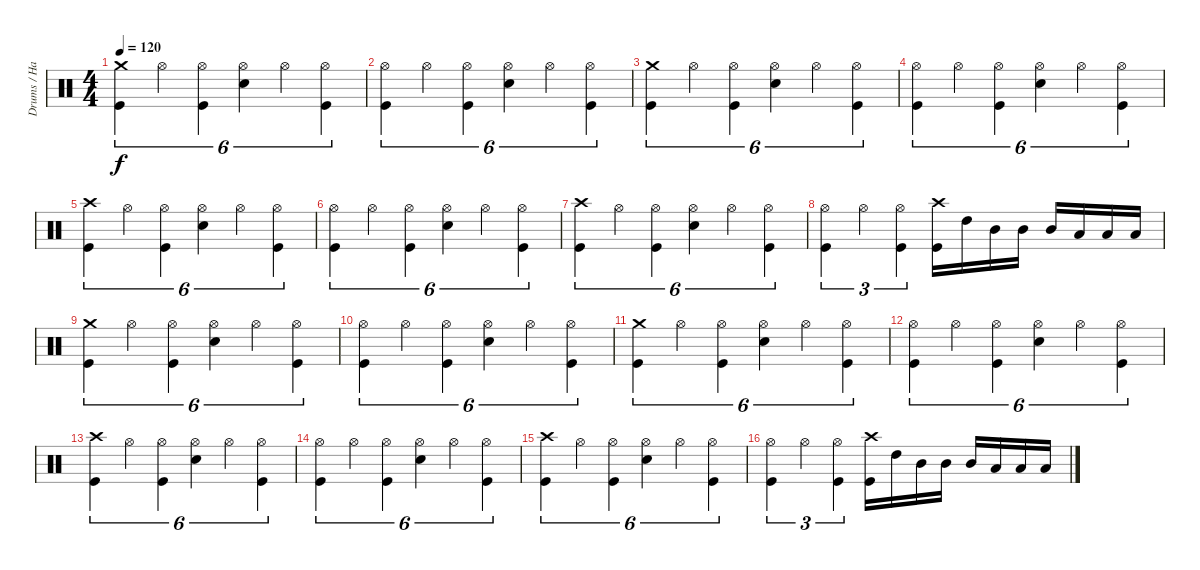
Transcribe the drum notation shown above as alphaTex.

\track ("Drums / Hammer of God" "Drums / Ha") {instrument percussion}
\staff {score}
\articulation defaults
\ts (4 4)
\tempo 120
\clef neutral
\ks c
("Kick (hit)" "Crash medium (hit)").4{tu (6 4) dy f} "Hi-Hat (open)".4{tu (6 4)} ("Kick (hit)" "Hi-Hat (open)").4{tu (6 4)} ("Snare (hit) 2" "Hi-Hat (open)").4{tu (6 4)} "Hi-Hat (open)".4{tu (6 4)} ("Kick (hit)" "Hi-Hat (open)").4{tu (6 4)} |
("Kick (hit)" "Hi-Hat (open)").4{tu (6 4)} "Hi-Hat (open)".4{tu (6 4)} ("Kick (hit)" "Hi-Hat (open)").4{tu (6 4)} ("Snare (hit) 2" "Hi-Hat (open)").4{tu (6 4)} "Hi-Hat (open)".4{tu (6 4)} ("Kick (hit)" "Hi-Hat (open)").4{tu (6 4)} |
("Kick (hit)" "Crash medium (hit)").4{tu (6 4)} "Hi-Hat (open)".4{tu (6 4)} ("Kick (hit)" "Hi-Hat (open)").4{tu (6 4)} ("Snare (hit) 2" "Hi-Hat (open)").4{tu (6 4)} "Hi-Hat (open)".4{tu (6 4)} ("Kick (hit)" "Hi-Hat (open)").4{tu (6 4)} |
("Kick (hit)" "Hi-Hat (open)").4{tu (6 4)} "Hi-Hat (open)".4{tu (6 4)} ("Kick (hit)" "Hi-Hat (open)").4{tu (6 4)} ("Snare (hit) 2" "Hi-Hat (open)").4{tu (6 4)} "Hi-Hat (open)".4{tu (6 4)} ("Kick (hit)" "Hi-Hat (open)").4{tu (6 4)} |
("Kick (hit)" "Crash high (hit)").4{tu (6 4)} "Hi-Hat (open)".4{tu (6 4)} ("Kick (hit)" "Hi-Hat (open)").4{tu (6 4)} ("Snare (hit) 2" "Hi-Hat (open)").4{tu (6 4)} "Hi-Hat (open)".4{tu (6 4)} ("Kick (hit)" "Hi-Hat (open)").4{tu (6 4)} |
("Kick (hit)" "Hi-Hat (open)").4{tu (6 4)} "Hi-Hat (open)".4{tu (6 4)} ("Kick (hit)" "Hi-Hat (open)").4{tu (6 4)} ("Snare (hit) 2" "Hi-Hat (open)").4{tu (6 4)} "Hi-Hat (open)".4{tu (6 4)} ("Kick (hit)" "Hi-Hat (open)").4{tu (6 4)} |
("Kick (hit)" "Crash high (hit)").4{tu (6 4)} "Hi-Hat (open)".4{tu (6 4)} ("Kick (hit)" "Hi-Hat (open)").4{tu (6 4)} ("Snare (hit) 2" "Hi-Hat (open)").4{tu (6 4)} "Hi-Hat (open)".4{tu (6 4)} ("Kick (hit)" "Hi-Hat (open)").4{tu (6 4)} |
("Kick (hit)" "Hi-Hat (open)").4{tu (3 2)} "Hi-Hat (open)".4{tu (3 2)} ("Kick (hit)" "Hi-Hat (open)").4{tu (3 2)} ("Kick (hit)" "Crash high (hit)").16 "High Tom (hit)".16 "Mid Tom (hit)".16 "Mid Tom (hit)".16 "Mid Tom (hit)".16 "Low Tom (hit)".16 "Low Tom (hit)".16 "Low Tom (hit)".16 |
("Kick (hit)" "Crash medium (hit)").4{tu (6 4)} "Hi-Hat (open)".4{tu (6 4)} ("Kick (hit)" "Hi-Hat (open)").4{tu (6 4)} ("Snare (hit) 2" "Hi-Hat (open)").4{tu (6 4)} "Hi-Hat (open)".4{tu (6 4)} ("Kick (hit)" "Hi-Hat (open)").4{tu (6 4)} |
("Kick (hit)" "Hi-Hat (open)").4{tu (6 4)} "Hi-Hat (open)".4{tu (6 4)} ("Kick (hit)" "Hi-Hat (open)").4{tu (6 4)} ("Snare (hit) 2" "Hi-Hat (open)").4{tu (6 4)} "Hi-Hat (open)".4{tu (6 4)} ("Kick (hit)" "Hi-Hat (open)").4{tu (6 4)} |
("Kick (hit)" "Crash medium (hit)").4{tu (6 4)} "Hi-Hat (open)".4{tu (6 4)} ("Kick (hit)" "Hi-Hat (open)").4{tu (6 4)} ("Snare (hit) 2" "Hi-Hat (open)").4{tu (6 4)} "Hi-Hat (open)".4{tu (6 4)} ("Kick (hit)" "Hi-Hat (open)").4{tu (6 4)} |
("Kick (hit)" "Hi-Hat (open)").4{tu (6 4)} "Hi-Hat (open)".4{tu (6 4)} ("Kick (hit)" "Hi-Hat (open)").4{tu (6 4)} ("Snare (hit) 2" "Hi-Hat (open)").4{tu (6 4)} "Hi-Hat (open)".4{tu (6 4)} ("Kick (hit)" "Hi-Hat (open)").4{tu (6 4)} |
("Kick (hit)" "Crash high (hit)").4{tu (6 4)} "Hi-Hat (open)".4{tu (6 4)} ("Kick (hit)" "Hi-Hat (open)").4{tu (6 4)} ("Snare (hit) 2" "Hi-Hat (open)").4{tu (6 4)} "Hi-Hat (open)".4{tu (6 4)} ("Kick (hit)" "Hi-Hat (open)").4{tu (6 4)} |
("Kick (hit)" "Hi-Hat (open)").4{tu (6 4)} "Hi-Hat (open)".4{tu (6 4)} ("Kick (hit)" "Hi-Hat (open)").4{tu (6 4)} ("Snare (hit) 2" "Hi-Hat (open)").4{tu (6 4)} "Hi-Hat (open)".4{tu (6 4)} ("Kick (hit)" "Hi-Hat (open)").4{tu (6 4)} |
("Kick (hit)" "Crash high (hit)").4{tu (6 4)} "Hi-Hat (open)".4{tu (6 4)} ("Kick (hit)" "Hi-Hat (open)").4{tu (6 4)} ("Snare (hit) 2" "Hi-Hat (open)").4{tu (6 4)} "Hi-Hat (open)".4{tu (6 4)} ("Kick (hit)" "Hi-Hat (open)").4{tu (6 4)} |
("Kick (hit)" "Hi-Hat (open)").4{tu (3 2)} "Hi-Hat (open)".4{tu (3 2)} ("Kick (hit)" "Hi-Hat (open)").4{tu (3 2)} ("Kick (hit)" "Crash high (hit)").16 "High Tom (hit)".16 "Mid Tom (hit)".16 "Mid Tom (hit)".16 "Mid Tom (hit)".16 "Low Tom (hit)".16 "Low Tom (hit)".16 "Low Tom (hit)".16
